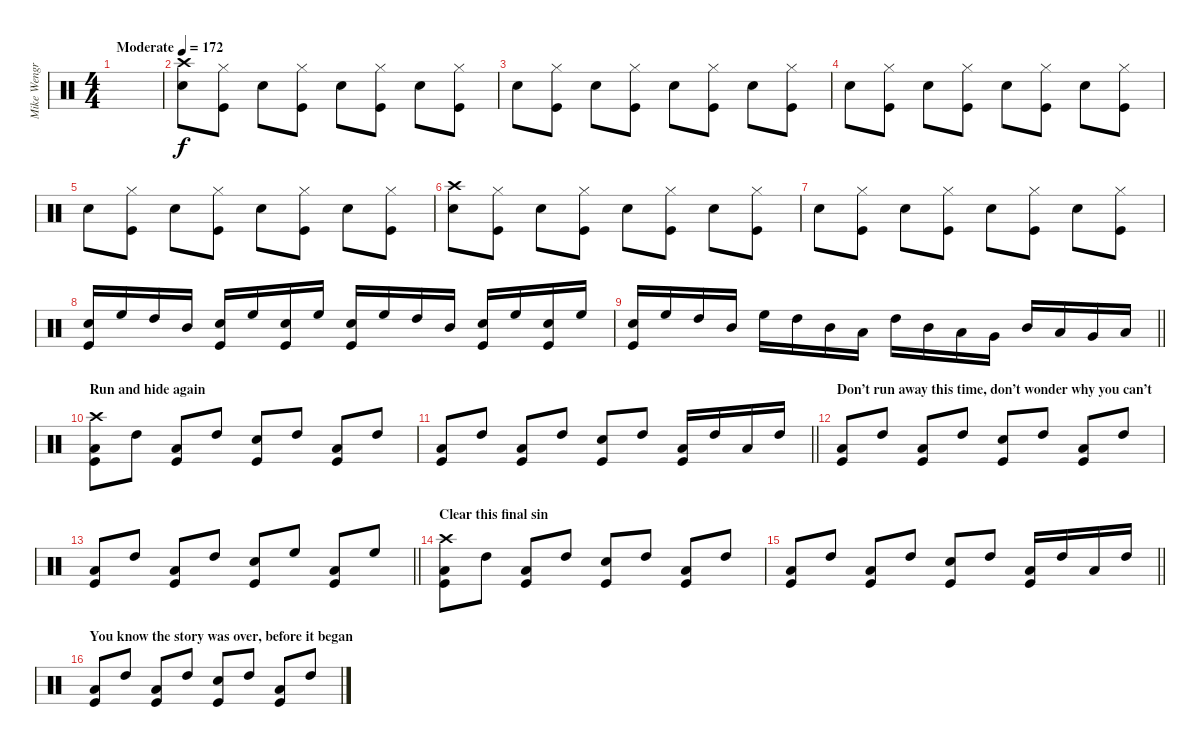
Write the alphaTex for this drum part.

\track ("Mike Wengren - Drums" "Mike Wengr") {instrument percussion}
\staff {score}
\articulation defaults
\ts (4 4)
\tempo (172 "Moderate")
\clef neutral
\ks c
|
("Crash high (hit)" "Snare (hit) 2").8 ("Hi-Hat (closed)" "Kick (hit)").8 "Snare (hit) 2".8 ("Hi-Hat (closed)" "Kick (hit)").8 "Snare (hit) 2".8 ("Hi-Hat (closed)" "Kick (hit)").8 "Snare (hit) 2".8 ("Hi-Hat (closed)" "Kick (hit)").8 |
"Snare (hit) 2".8 ("Hi-Hat (closed)" "Kick (hit)").8 "Snare (hit) 2".8 ("Hi-Hat (closed)" "Kick (hit)").8 "Snare (hit) 2".8 ("Hi-Hat (closed)" "Kick (hit)").8 "Snare (hit) 2".8 ("Hi-Hat (closed)" "Kick (hit)").8 |
"Snare (hit) 2".8 ("Hi-Hat (closed)" "Kick (hit)").8 "Snare (hit) 2".8 ("Hi-Hat (closed)" "Kick (hit)").8 "Snare (hit) 2".8 ("Hi-Hat (closed)" "Kick (hit)").8 "Snare (hit) 2".8 ("Hi-Hat (closed)" "Kick (hit)").8 |
"Snare (hit) 2".8 ("Hi-Hat (closed)" "Kick (hit)").8 "Snare (hit) 2".8 ("Hi-Hat (closed)" "Kick (hit)").8 "Snare (hit) 2".8 ("Hi-Hat (closed)" "Kick (hit)").8 "Snare (hit) 2".8 ("Hi-Hat (closed)" "Kick (hit)").8 |
("Crash high (hit)" "Snare (hit) 2").8 ("Hi-Hat (closed)" "Kick (hit)").8 "Snare (hit) 2".8 ("Hi-Hat (closed)" "Kick (hit)").8 "Snare (hit) 2".8 ("Hi-Hat (closed)" "Kick (hit)").8 "Snare (hit) 2".8 ("Hi-Hat (closed)" "Kick (hit)").8 |
"Snare (hit) 2".8 ("Hi-Hat (closed)" "Kick (hit)").8 "Snare (hit) 2".8 ("Hi-Hat (closed)" "Kick (hit)").8 "Snare (hit) 2".8 ("Hi-Hat (closed)" "Kick (hit)").8 "Snare (hit) 2".8 ("Hi-Hat (closed)" "Kick (hit)").8 |
("Snare (hit) 2" "Kick (hit)").16 "High Floor Tom (hit)".16 "High Tom (hit)".16 "Mid Tom (hit)".16 ("Snare (hit) 2" "Kick (hit)").16 "High Floor Tom (hit)".16 ("Snare (hit) 2" "Kick (hit)").16 "High Floor Tom (hit)".16 ("Snare (hit) 2" "Kick (hit)").16 "High Floor Tom (hit)".16 "High Tom (hit)".16 "Mid Tom (hit)".16 ("Snare (hit) 2" "Kick (hit)").16 "High Floor Tom (hit)".16 ("Snare (hit) 2" "Kick (hit)").16 "High Floor Tom (hit)".16 |
\barLineRight lightlight
("Snare (hit) 2" "Kick (hit)").16 "High Floor Tom (hit)".16 "High Tom (hit)".16 "Mid Tom (hit)".16 "High Floor Tom (hit)".16 "High Tom (hit)".16 "Mid Tom (hit)".16 "Low Tom (hit)".16 "High Tom (hit)".16 "Mid Tom (hit)".16 "Low Tom (hit)".16 "Very Low Tom (hit)".16 "Mid Tom (hit)".16 "Low Tom (hit)".16 "Very Low Tom (hit)".16 "Low Floor Tom (hit)".16 |
\section ("" "Run and hide again")
("Crash high (hit)" "Low Tom (hit)" "Kick (hit)").8 "High Tom (hit)".8 ("Low Tom (hit)" "Kick (hit)").8 "High Tom (hit)".8 ("Snare (hit) 2" "Kick (hit)").8 "High Tom (hit)".8 ("Low Tom (hit)" "Kick (hit)").8 "High Tom (hit)".8 |
\barLineRight lightlight
("Low Tom (hit)" "Kick (hit)").8 "High Tom (hit)".8 ("Low Tom (hit)" "Kick (hit)").8 "High Tom (hit)".8 ("Snare (hit) 2" "Kick (hit)").8 "High Tom (hit)".8 ("Low Tom (hit)" "Kick (hit)").16 "High Tom (hit)".16 "Low Tom (hit)".16 "High Tom (hit)".16 |
\section ("" "Don’t run away this time, don’t wonder why you can’t")
("Low Tom (hit)" "Kick (hit)").8 "High Tom (hit)".8 ("Low Tom (hit)" "Kick (hit)").8 "High Tom (hit)".8 ("Snare (hit) 2" "Kick (hit)").8 "High Tom (hit)".8 ("Low Tom (hit)" "Kick (hit)").8 "High Tom (hit)".8 |
\barLineRight lightlight
("Low Tom (hit)" "Kick (hit)").8 "High Tom (hit)".8 ("Low Tom (hit)" "Kick (hit)").8 "High Tom (hit)".8 ("Snare (hit) 2" "Kick (hit)").8 "High Floor Tom (hit)".8 ("Low Tom (hit)" "Kick (hit)").8 "High Floor Tom (hit)".8 |
\section ("" "Clear this final sin")
("Crash high (hit)" "Low Tom (hit)" "Kick (hit)").8 "High Tom (hit)".8 ("Low Tom (hit)" "Kick (hit)").8 "High Tom (hit)".8 ("Snare (hit) 2" "Kick (hit)").8 "High Tom (hit)".8 ("Low Tom (hit)" "Kick (hit)").8 "High Tom (hit)".8 |
\barLineRight lightlight
("Low Tom (hit)" "Kick (hit)").8 "High Tom (hit)".8 ("Low Tom (hit)" "Kick (hit)").8 "High Tom (hit)".8 ("Snare (hit) 2" "Kick (hit)").8 "High Tom (hit)".8 ("Low Tom (hit)" "Kick (hit)").16 "High Tom (hit)".16 "Low Tom (hit)".16 "High Tom (hit)".16 |
\section ("" "You know the story was over, before it began")
("Low Tom (hit)" "Kick (hit)").8 "High Tom (hit)".8 ("Low Tom (hit)" "Kick (hit)").8 "High Tom (hit)".8 ("Snare (hit) 2" "Kick (hit)").8 "High Tom (hit)".8 ("Low Tom (hit)" "Kick (hit)").8 "High Tom (hit)".8
